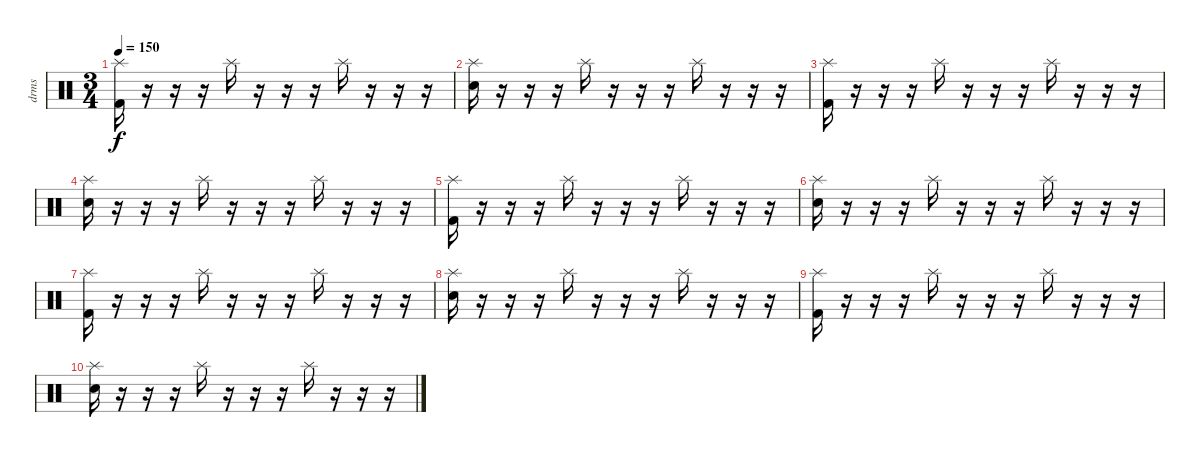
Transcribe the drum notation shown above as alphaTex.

\track ("drms" "drms") {instrument percussion}
\staff {score}
\articulation defaults
\ts (3 4)
\tempo 150
\clef neutral
\ks c
("Splash (hit)" "Kick (hit) 2").16{dy f} r.16 r.16 r.16 "Splash (hit)".16 r.16 r.16 r.16 "Splash (hit)".16 r.16 r.16 r.16 |
("Splash (hit)" "Electric Snare (hit)").16 r.16 r.16 r.16 "Splash (hit)".16 r.16 r.16 r.16 "Splash (hit)".16 r.16 r.16 r.16 |
("Splash (hit)" "Kick (hit) 2").16 r.16 r.16 r.16 "Splash (hit)".16 r.16 r.16 r.16 "Splash (hit)".16 r.16 r.16 r.16 |
("Splash (hit)" "Electric Snare (hit)").16 r.16 r.16 r.16 "Splash (hit)".16 r.16 r.16 r.16 "Splash (hit)".16 r.16 r.16 r.16 |
("Splash (hit)" "Kick (hit) 2").16 r.16 r.16 r.16 "Splash (hit)".16 r.16 r.16 r.16 "Splash (hit)".16 r.16 r.16 r.16 |
("Splash (hit)" "Electric Snare (hit)").16 r.16 r.16 r.16 "Splash (hit)".16 r.16 r.16 r.16 "Splash (hit)".16 r.16 r.16 r.16 |
("Splash (hit)" "Kick (hit) 2").16 r.16 r.16 r.16 "Splash (hit)".16 r.16 r.16 r.16 "Splash (hit)".16 r.16 r.16 r.16 |
("Splash (hit)" "Electric Snare (hit)").16 r.16 r.16 r.16 "Splash (hit)".16 r.16 r.16 r.16 "Splash (hit)".16 r.16 r.16 r.16 |
("Splash (hit)" "Kick (hit) 2").16 r.16 r.16 r.16 "Splash (hit)".16 r.16 r.16 r.16 "Splash (hit)".16 r.16 r.16 r.16 |
("Splash (hit)" "Electric Snare (hit)").16 r.16 r.16 r.16 "Splash (hit)".16 r.16 r.16 r.16 "Splash (hit)".16 r.16 r.16 r.16
